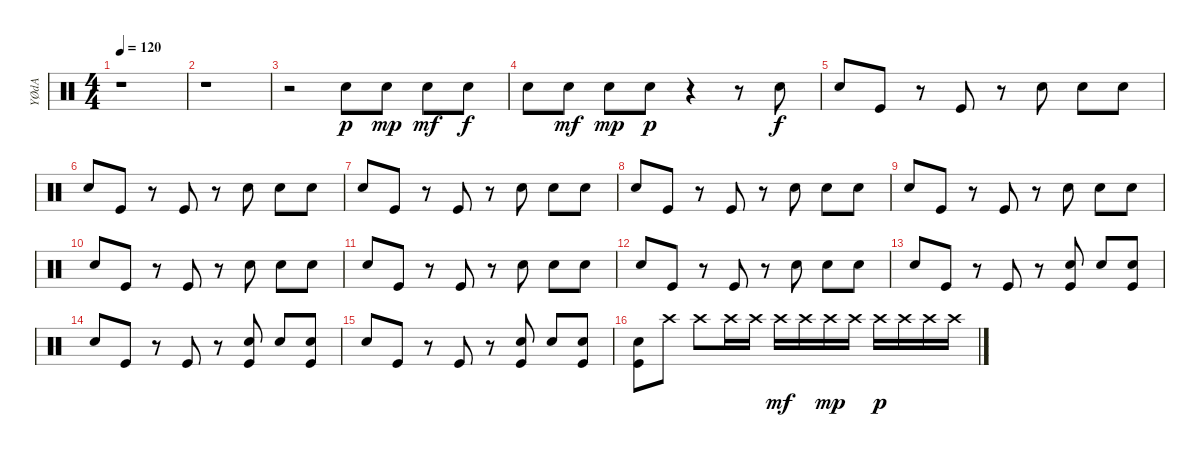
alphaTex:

\track ("YØdA" "YØdA") {instrument percussion}
\staff {score}
\articulation defaults
\ts (4 4)
\tempo 120
\clef neutral
\ks c
r.1{dy f} |
r.1 |
r.2 "Electric Snare (hit)".8{dy p} "Electric Snare (hit)".8{dy mp} "Electric Snare (hit)".8{dy mf} "Electric Snare (hit)".8{dy f} |
"Electric Snare (hit)".8 "Electric Snare (hit)".8{dy mf} "Electric Snare (hit)".8{dy mp} "Electric Snare (hit)".8{dy p} r.4 r.8 "Electric Snare (hit)".8{dy f} |
"Electric Snare (hit)".8 "Kick (hit)".8 r.8 "Kick (hit)".8 r.8 "Electric Snare (hit)".8 "Electric Snare (hit)".8 "Electric Snare (hit)".8 |
"Electric Snare (hit)".8 "Kick (hit)".8 r.8 "Kick (hit)".8 r.8 "Electric Snare (hit)".8 "Electric Snare (hit)".8 "Electric Snare (hit)".8 |
"Electric Snare (hit)".8 "Kick (hit)".8 r.8 "Kick (hit)".8 r.8 "Electric Snare (hit)".8 "Electric Snare (hit)".8 "Electric Snare (hit)".8 |
"Electric Snare (hit)".8 "Kick (hit)".8 r.8 "Kick (hit)".8 r.8 "Electric Snare (hit)".8 "Electric Snare (hit)".8 "Electric Snare (hit)".8 |
"Electric Snare (hit)".8 "Kick (hit)".8 r.8 "Kick (hit)".8 r.8 "Electric Snare (hit)".8 "Electric Snare (hit)".8 "Electric Snare (hit)".8 |
"Electric Snare (hit)".8 "Kick (hit)".8 r.8 "Kick (hit)".8 r.8 "Electric Snare (hit)".8 "Electric Snare (hit)".8 "Electric Snare (hit)".8 |
"Electric Snare (hit)".8 "Kick (hit)".8 r.8 "Kick (hit)".8 r.8 "Electric Snare (hit)".8 "Electric Snare (hit)".8 "Electric Snare (hit)".8 |
"Electric Snare (hit)".8 "Kick (hit)".8 r.8 "Kick (hit)".8 r.8 "Electric Snare (hit)".8 "Electric Snare (hit)".8 "Electric Snare (hit)".8 |
"Electric Snare (hit)".8 "Kick (hit)".8 r.8 "Kick (hit)".8 r.8 ("Electric Snare (hit)" "Kick (hit)").8 "Electric Snare (hit)".8 ("Electric Snare (hit)" "Kick (hit)").8 |
"Electric Snare (hit)".8 "Kick (hit)".8 r.8 "Kick (hit)".8 r.8 ("Electric Snare (hit)" "Kick (hit)").8 "Electric Snare (hit)".8 ("Electric Snare (hit)" "Kick (hit)").8 |
"Electric Snare (hit)".8 "Kick (hit)".8 r.8 "Kick (hit)".8 r.8 ("Electric Snare (hit)" "Kick (hit)").8 "Electric Snare (hit)".8 ("Electric Snare (hit)" "Kick (hit)").8 |
("Electric Snare (hit)" "Kick (hit)").8 "Crash high (hit)".8 "Crash high (hit)".8 "Crash high (hit)".16 "Crash high (hit)".16 "Crash high (hit)".16{dy mf} "Crash high (hit)".16 "Crash high (hit)".16{dy mp} "Crash high (hit)".16 "Crash high (hit)".16{dy p} "Crash high (hit)".16 "Crash high (hit)".16 "Crash high (hit)".16
